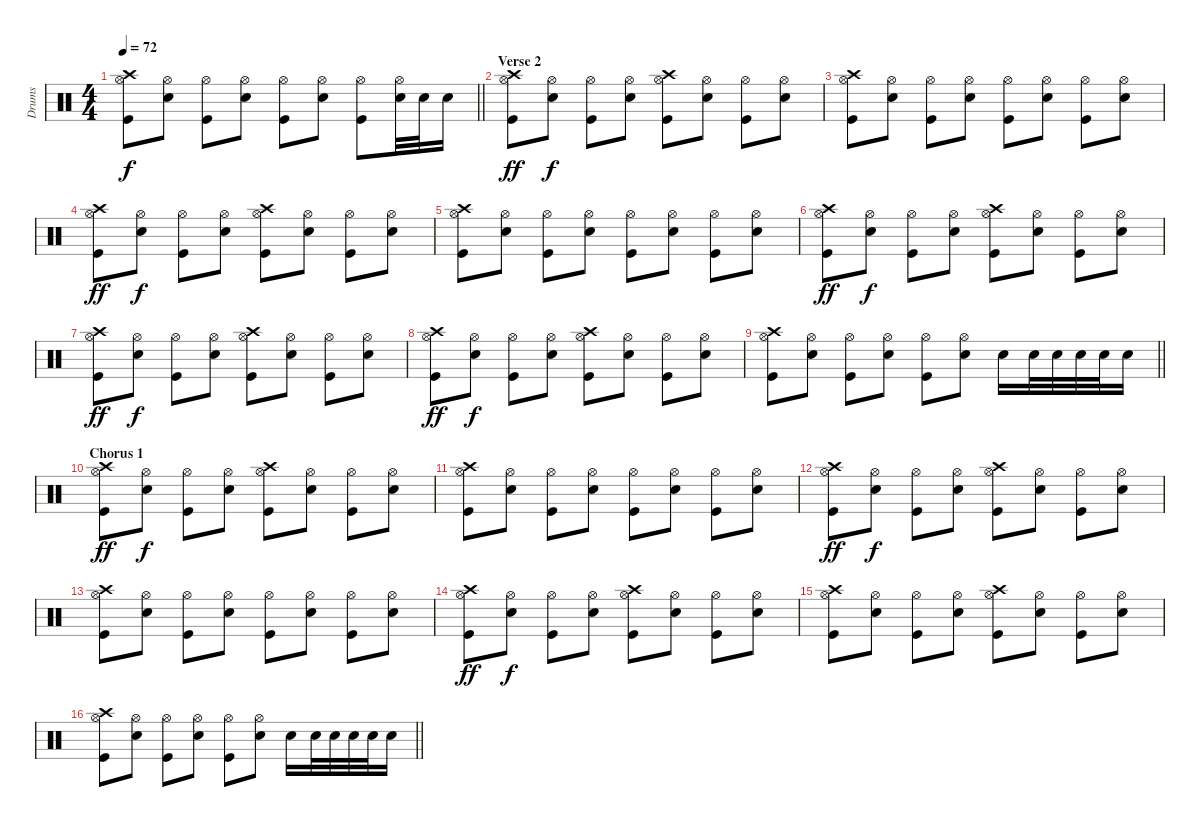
\track ("Drums" "Drums") {instrument percussion}
\staff {score}
\articulation defaults
\ts (4 4)
\tempo 72
\clef neutral
\barLineRight lightlight
\ks c
("Crash high (hit)" "Hi-Hat (open)" "Kick (hit)").8{dy f} ("Electric Snare (hit)" "Hi-Hat (open)").8 ("Hi-Hat (open)" "Kick (hit)").8 ("Electric Snare (hit)" "Hi-Hat (open)").8 ("Hi-Hat (open)" "Kick (hit)").8 ("Electric Snare (hit)" "Hi-Hat (open)").8 ("Hi-Hat (open)" "Kick (hit)").8 ("Electric Snare (hit)" "Hi-Hat (open)").32 "Electric Snare (hit)".32 "Electric Snare (hit)".16 |
\section ("" "Verse 2")
("Crash high (hit)" "Hi-Hat (open)" "Kick (hit)").8{dy ff} ("Electric Snare (hit)" "Hi-Hat (open)").8{dy f} ("Hi-Hat (open)" "Kick (hit)").8 ("Electric Snare (hit)" "Hi-Hat (open)").8 ("Crash high (hit)" "Hi-Hat (open)" "Kick (hit)").8 ("Electric Snare (hit)" "Hi-Hat (open)").8 ("Hi-Hat (open)" "Kick (hit)").8 ("Electric Snare (hit)" "Hi-Hat (open)").8 |
("Crash high (hit)" "Hi-Hat (open)" "Kick (hit)").8 ("Electric Snare (hit)" "Hi-Hat (open)").8 ("Hi-Hat (open)" "Kick (hit)").8 ("Electric Snare (hit)" "Hi-Hat (open)").8 ("Hi-Hat (open)" "Kick (hit)").8 ("Electric Snare (hit)" "Hi-Hat (open)").8 ("Hi-Hat (open)" "Kick (hit)").8 ("Electric Snare (hit)" "Hi-Hat (open)").8 |
("Crash high (hit)" "Hi-Hat (open)" "Kick (hit)").8{dy ff} ("Electric Snare (hit)" "Hi-Hat (open)").8{dy f} ("Hi-Hat (open)" "Kick (hit)").8 ("Electric Snare (hit)" "Hi-Hat (open)").8 ("Crash high (hit)" "Hi-Hat (open)" "Kick (hit)").8 ("Electric Snare (hit)" "Hi-Hat (open)").8 ("Hi-Hat (open)" "Kick (hit)").8 ("Electric Snare (hit)" "Hi-Hat (open)").8 |
("Crash high (hit)" "Hi-Hat (open)" "Kick (hit)").8 ("Electric Snare (hit)" "Hi-Hat (open)").8 ("Hi-Hat (open)" "Kick (hit)").8 ("Electric Snare (hit)" "Hi-Hat (open)").8 ("Hi-Hat (open)" "Kick (hit)").8 ("Electric Snare (hit)" "Hi-Hat (open)").8 ("Hi-Hat (open)" "Kick (hit)").8 ("Electric Snare (hit)" "Hi-Hat (open)").8 |
("Crash high (hit)" "Hi-Hat (open)" "Kick (hit)").8{dy ff} ("Electric Snare (hit)" "Hi-Hat (open)").8{dy f} ("Hi-Hat (open)" "Kick (hit)").8 ("Electric Snare (hit)" "Hi-Hat (open)").8 ("Crash high (hit)" "Hi-Hat (open)" "Kick (hit)").8 ("Electric Snare (hit)" "Hi-Hat (open)").8 ("Hi-Hat (open)" "Kick (hit)").8 ("Electric Snare (hit)" "Hi-Hat (open)").8 |
("Crash high (hit)" "Hi-Hat (open)" "Kick (hit)").8{dy ff} ("Electric Snare (hit)" "Hi-Hat (open)").8{dy f} ("Hi-Hat (open)" "Kick (hit)").8 ("Electric Snare (hit)" "Hi-Hat (open)").8 ("Crash high (hit)" "Hi-Hat (open)" "Kick (hit)").8 ("Electric Snare (hit)" "Hi-Hat (open)").8 ("Hi-Hat (open)" "Kick (hit)").8 ("Electric Snare (hit)" "Hi-Hat (open)").8 |
("Crash high (hit)" "Hi-Hat (open)" "Kick (hit)").8{dy ff} ("Electric Snare (hit)" "Hi-Hat (open)").8{dy f} ("Hi-Hat (open)" "Kick (hit)").8 ("Electric Snare (hit)" "Hi-Hat (open)").8 ("Crash high (hit)" "Hi-Hat (open)" "Kick (hit)").8 ("Electric Snare (hit)" "Hi-Hat (open)").8 ("Hi-Hat (open)" "Kick (hit)").8 ("Electric Snare (hit)" "Hi-Hat (open)").8 |
\barLineRight lightlight
("Crash high (hit)" "Hi-Hat (open)" "Kick (hit)").8 ("Electric Snare (hit)" "Hi-Hat (open)").8 ("Hi-Hat (open)" "Kick (hit)").8 ("Electric Snare (hit)" "Hi-Hat (open)").8 ("Hi-Hat (open)" "Kick (hit)").8 ("Electric Snare (hit)" "Hi-Hat (open)").8 "Electric Snare (hit)".16 "Electric Snare (hit)".32 "Electric Snare (hit)".32 "Electric Snare (hit)".32 "Electric Snare (hit)".32 "Electric Snare (hit)".16 |
\section ("" "Chorus 1")
("Crash high (hit)" "Hi-Hat (open)" "Kick (hit)").8{dy ff} ("Electric Snare (hit)" "Hi-Hat (open)").8{dy f} ("Hi-Hat (open)" "Kick (hit)").8 ("Electric Snare (hit)" "Hi-Hat (open)").8 ("Crash high (hit)" "Hi-Hat (open)" "Kick (hit)").8 ("Electric Snare (hit)" "Hi-Hat (open)").8 ("Hi-Hat (open)" "Kick (hit)").8 ("Electric Snare (hit)" "Hi-Hat (open)").8 |
("Crash high (hit)" "Hi-Hat (open)" "Kick (hit)").8 ("Electric Snare (hit)" "Hi-Hat (open)").8 ("Hi-Hat (open)" "Kick (hit)").8 ("Electric Snare (hit)" "Hi-Hat (open)").8 ("Hi-Hat (open)" "Kick (hit)").8 ("Electric Snare (hit)" "Hi-Hat (open)").8 ("Hi-Hat (open)" "Kick (hit)").8 ("Electric Snare (hit)" "Hi-Hat (open)").8 |
("Crash high (hit)" "Hi-Hat (open)" "Kick (hit)").8{dy ff} ("Electric Snare (hit)" "Hi-Hat (open)").8{dy f} ("Hi-Hat (open)" "Kick (hit)").8 ("Electric Snare (hit)" "Hi-Hat (open)").8 ("Crash high (hit)" "Hi-Hat (open)" "Kick (hit)").8 ("Electric Snare (hit)" "Hi-Hat (open)").8 ("Hi-Hat (open)" "Kick (hit)").8 ("Electric Snare (hit)" "Hi-Hat (open)").8 |
("Crash high (hit)" "Hi-Hat (open)" "Kick (hit)").8 ("Electric Snare (hit)" "Hi-Hat (open)").8 ("Hi-Hat (open)" "Kick (hit)").8 ("Electric Snare (hit)" "Hi-Hat (open)").8 ("Hi-Hat (open)" "Kick (hit)").8 ("Electric Snare (hit)" "Hi-Hat (open)").8 ("Hi-Hat (open)" "Kick (hit)").8 ("Electric Snare (hit)" "Hi-Hat (open)").8 |
("Crash high (hit)" "Hi-Hat (open)" "Kick (hit)").8{dy ff} ("Electric Snare (hit)" "Hi-Hat (open)").8{dy f} ("Hi-Hat (open)" "Kick (hit)").8 ("Electric Snare (hit)" "Hi-Hat (open)").8 ("Crash high (hit)" "Hi-Hat (open)" "Kick (hit)").8 ("Electric Snare (hit)" "Hi-Hat (open)").8 ("Hi-Hat (open)" "Kick (hit)").8 ("Electric Snare (hit)" "Hi-Hat (open)").8 |
("Crash high (hit)" "Hi-Hat (open)" "Kick (hit)").8 ("Electric Snare (hit)" "Hi-Hat (open)").8 ("Hi-Hat (open)" "Kick (hit)").8 ("Electric Snare (hit)" "Hi-Hat (open)").8 ("Crash high (hit)" "Hi-Hat (open)" "Kick (hit)").8 ("Electric Snare (hit)" "Hi-Hat (open)").8 ("Hi-Hat (open)" "Kick (hit)").8 ("Electric Snare (hit)" "Hi-Hat (open)").8 |
\barLineRight lightlight
("Crash high (hit)" "Hi-Hat (open)" "Kick (hit)").8 ("Electric Snare (hit)" "Hi-Hat (open)").8 ("Hi-Hat (open)" "Kick (hit)").8 ("Electric Snare (hit)" "Hi-Hat (open)").8 ("Hi-Hat (open)" "Kick (hit)").8 ("Electric Snare (hit)" "Hi-Hat (open)").8 "Electric Snare (hit)".16 "Electric Snare (hit)".32 "Electric Snare (hit)".32 "Electric Snare (hit)".32 "Electric Snare (hit)".32 "Electric Snare (hit)".16
